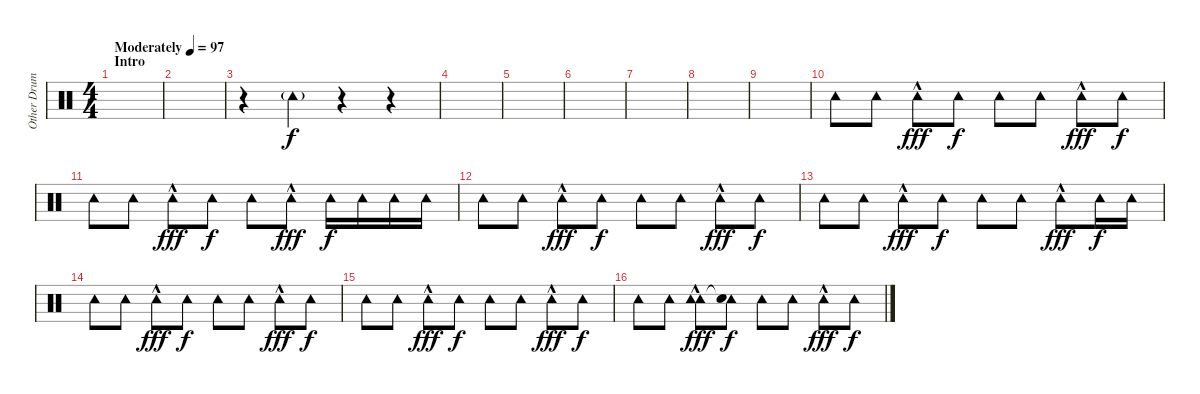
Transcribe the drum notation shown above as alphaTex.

\track ("Other Drumer" "Other Drum") {instrument percussion}
\staff {score}
\articulation defaults
\ts (4 4)
\section ("" "Intro")
\tempo (97 "Moderately")
\clef neutral
\ks c
|
|
r.4 "Tambourine (hit)"{g}.4 r.4 r.4 |
|
|
|
|
|
|
"Tambourine (hit)".8{dy f} "Tambourine (hit)".8 "Tambourine (hit)"{hac}.8{dy fff} "Tambourine (hit)".8{dy f} "Tambourine (hit)".8 "Tambourine (hit)".8 "Tambourine (hit)"{hac}.8{dy fff} "Tambourine (hit)".8{dy f} |
"Tambourine (hit)".8 "Tambourine (hit)".8 "Tambourine (hit)"{hac}.8{dy fff} "Tambourine (hit)".8{dy f} "Tambourine (hit)".8 "Tambourine (hit)"{hac}.8{dy fff} "Tambourine (hit)".16{dy f} "Tambourine (hit)".16 "Tambourine (hit)".16 "Tambourine (hit)".16 |
"Tambourine (hit)".8 "Tambourine (hit)".8 "Tambourine (hit)"{hac}.8{dy fff} "Tambourine (hit)".8{dy f} "Tambourine (hit)".8 "Tambourine (hit)".8 "Tambourine (hit)"{hac}.8{dy fff} "Tambourine (hit)".8{dy f} |
"Tambourine (hit)".8 "Tambourine (hit)".8 "Tambourine (hit)"{hac}.8{dy fff} "Tambourine (hit)".8{dy f} "Tambourine (hit)".8 "Tambourine (hit)".8 "Tambourine (hit)"{hac}.8{dy fff} "Tambourine (hit)".16{dy f} "Tambourine (hit)".16 |
"Tambourine (hit)".8 "Tambourine (hit)".8 "Tambourine (hit)"{hac}.8{dy fff} "Tambourine (hit)".8{dy f} "Tambourine (hit)".8 "Tambourine (hit)".8 "Tambourine (hit)"{hac}.8{dy fff} "Tambourine (hit)".8{dy f} |
"Tambourine (hit)".8 "Tambourine (hit)".8 "Tambourine (hit)"{hac}.8{dy fff} "Tambourine (hit)".8{dy f} "Tambourine (hit)".8 "Tambourine (hit)".8 "Tambourine (hit)"{hac}.8{dy fff} "Tambourine (hit)".8{dy f} |
"Tambourine (hit)".8 "Tambourine (hit)".8 ("Tambourine (hit)"{hac} "Tambourine (hit)").8{dy fff} ("Tambourine (hit)" "Snare (hit)"{t}).8{dy f} "Tambourine (hit)".8 "Tambourine (hit)".8 "Tambourine (hit)"{hac}.8{dy fff} "Tambourine (hit)".8{dy f}
